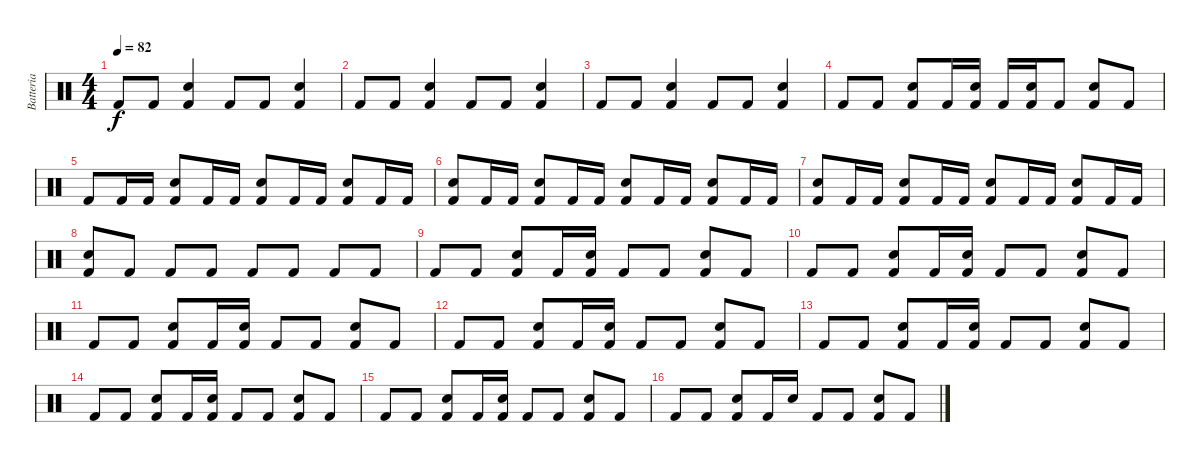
\track ("Batteria" "Batteria") {instrument percussion}
\staff {score}
\articulation defaults
\ts (4 4)
\tempo 82
\clef neutral
\ks c "Kick (hit) 2".8{dy f} "Kick (hit) 2".8
("Snare (hit) 2" "Kick (hit) 2").4 "Kick (hit) 2".8 "Kick (hit) 2".8 ("Snare (hit) 2" "Kick (hit) 2").4 |
"Kick (hit) 2".8 "Kick (hit) 2".8 ("Snare (hit) 2" "Kick (hit) 2").4 "Kick (hit) 2".8 "Kick (hit) 2".8 ("Snare (hit) 2" "Kick (hit) 2").4 |
"Kick (hit) 2".8 "Kick (hit) 2".8 ("Snare (hit) 2" "Kick (hit) 2").4 "Kick (hit) 2".8 "Kick (hit) 2".8 ("Snare (hit) 2" "Kick (hit) 2").4 |
"Kick (hit) 2".8 "Kick (hit) 2".8 ("Snare (hit) 2" "Kick (hit) 2").8 "Kick (hit) 2".16 ("Snare (hit) 2" "Kick (hit) 2").16 "Kick (hit) 2".16 ("Snare (hit) 2" "Kick (hit) 2").16 "Kick (hit) 2".8 ("Snare (hit) 2" "Kick (hit) 2").8 "Kick (hit) 2".8 |
"Kick (hit) 2".8 "Kick (hit) 2".16 "Kick (hit) 2".16 ("Snare (hit) 2" "Kick (hit) 2").8 "Kick (hit) 2".16 "Kick (hit) 2".16 ("Snare (hit) 2" "Kick (hit) 2").8 "Kick (hit) 2".16 "Kick (hit) 2".16 ("Snare (hit) 2" "Kick (hit) 2").8 "Kick (hit) 2".16 "Kick (hit) 2".16 |
("Snare (hit) 2" "Kick (hit) 2").8 "Kick (hit) 2".16 "Kick (hit) 2".16 ("Snare (hit) 2" "Kick (hit) 2").8 "Kick (hit) 2".16 "Kick (hit) 2".16 ("Snare (hit) 2" "Kick (hit) 2").8 "Kick (hit) 2".16 "Kick (hit) 2".16 ("Snare (hit) 2" "Kick (hit) 2").8 "Kick (hit) 2".16 "Kick (hit) 2".16 |
("Snare (hit) 2" "Kick (hit) 2").8 "Kick (hit) 2".16 "Kick (hit) 2".16 ("Snare (hit) 2" "Kick (hit) 2").8 "Kick (hit) 2".16 "Kick (hit) 2".16 ("Snare (hit) 2" "Kick (hit) 2").8 "Kick (hit) 2".16 "Kick (hit) 2".16 ("Snare (hit) 2" "Kick (hit) 2").8 "Kick (hit) 2".16 "Kick (hit) 2".16 |
("Snare (hit) 2" "Kick (hit) 2").8 "Kick (hit) 2".8 "Kick (hit) 2".8 "Kick (hit) 2".8 "Kick (hit) 2".8 "Kick (hit) 2".8 "Kick (hit) 2".8 "Kick (hit) 2".8 |
"Kick (hit) 2".8 "Kick (hit) 2".8 ("Snare (hit) 2" "Kick (hit) 2").8 "Kick (hit) 2".16 ("Snare (hit) 2" "Kick (hit) 2").16 "Kick (hit) 2".8 "Kick (hit) 2".8 ("Snare (hit) 2" "Kick (hit) 2").8 "Kick (hit) 2".8 |
"Kick (hit) 2".8 "Kick (hit) 2".8 ("Snare (hit) 2" "Kick (hit) 2").8 "Kick (hit) 2".16 ("Snare (hit) 2" "Kick (hit) 2").16 "Kick (hit) 2".8 "Kick (hit) 2".8 ("Snare (hit) 2" "Kick (hit) 2").8 "Kick (hit) 2".8 |
"Kick (hit) 2".8 "Kick (hit) 2".8 ("Snare (hit) 2" "Kick (hit) 2").8 "Kick (hit) 2".16 ("Snare (hit) 2" "Kick (hit) 2").16 "Kick (hit) 2".8 "Kick (hit) 2".8 ("Snare (hit) 2" "Kick (hit) 2").8 "Kick (hit) 2".8 |
"Kick (hit) 2".8 "Kick (hit) 2".8 ("Snare (hit) 2" "Kick (hit) 2").8 "Kick (hit) 2".16 ("Snare (hit) 2" "Kick (hit) 2").16 "Kick (hit) 2".8 "Kick (hit) 2".8 ("Snare (hit) 2" "Kick (hit) 2").8 "Kick (hit) 2".8 |
"Kick (hit) 2".8 "Kick (hit) 2".8 ("Snare (hit) 2" "Kick (hit) 2").8 "Kick (hit) 2".16 ("Snare (hit) 2" "Kick (hit) 2").16 "Kick (hit) 2".8 "Kick (hit) 2".8 ("Snare (hit) 2" "Kick (hit) 2").8 "Kick (hit) 2".8 |
"Kick (hit) 2".8 "Kick (hit) 2".8 ("Snare (hit) 2" "Kick (hit) 2").8 "Kick (hit) 2".16 ("Snare (hit) 2" "Kick (hit) 2").16 "Kick (hit) 2".8 "Kick (hit) 2".8 ("Snare (hit) 2" "Kick (hit) 2").8 "Kick (hit) 2".8 |
"Kick (hit) 2".8 "Kick (hit) 2".8 ("Snare (hit) 2" "Kick (hit) 2").8 "Kick (hit) 2".16 ("Snare (hit) 2" "Kick (hit) 2").16 "Kick (hit) 2".8 "Kick (hit) 2".8 ("Snare (hit) 2" "Kick (hit) 2").8 "Kick (hit) 2".8 |
"Kick (hit) 2".8 "Kick (hit) 2".8 ("Snare (hit) 2" "Kick (hit) 2").8 "Kick (hit) 2".16 "Snare (hit) 2".16 "Kick (hit) 2".8 "Kick (hit) 2".8 ("Snare (hit) 2" "Kick (hit) 2").8 "Kick (hit) 2".8
